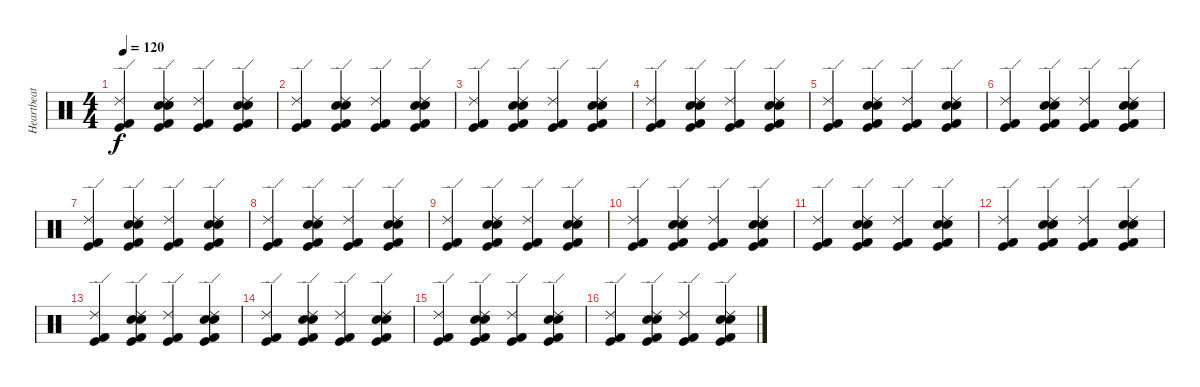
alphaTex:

\track ("Heartbeat" "Heartbeat") {instrument percussion}
\staff {score}
\articulation defaults
\ts (4 4)
\tempo 120
\clef neutral
\ks c
("Kick (hit)" "Kick (hit) 2" "Ride (edge) 2").4{dy f} ("Kick (hit)" "Kick (hit) 2" "Electric Snare (hit)" "Snare (hit) 2" "Ride (edge) 2").4 ("Kick (hit)" "Kick (hit) 2" "Ride (edge) 2").4 ("Kick (hit)" "Kick (hit) 2" "Electric Snare (hit)" "Snare (hit) 2" "Ride (edge) 2").4 |
("Kick (hit)" "Kick (hit) 2" "Ride (edge) 2").4 ("Kick (hit)" "Kick (hit) 2" "Electric Snare (hit)" "Snare (hit) 2" "Ride (edge) 2").4 ("Kick (hit)" "Kick (hit) 2" "Ride (edge) 2").4 ("Kick (hit)" "Kick (hit) 2" "Electric Snare (hit)" "Snare (hit) 2" "Ride (edge) 2").4 |
("Kick (hit)" "Kick (hit) 2" "Ride (edge) 2").4 ("Kick (hit)" "Kick (hit) 2" "Electric Snare (hit)" "Snare (hit) 2" "Ride (edge) 2").4 ("Kick (hit)" "Kick (hit) 2" "Ride (edge) 2").4 ("Kick (hit)" "Kick (hit) 2" "Electric Snare (hit)" "Snare (hit) 2" "Ride (edge) 2").4 |
("Kick (hit)" "Kick (hit) 2" "Ride (edge) 2").4 ("Kick (hit)" "Kick (hit) 2" "Electric Snare (hit)" "Snare (hit) 2" "Ride (edge) 2").4 ("Kick (hit)" "Kick (hit) 2" "Ride (edge) 2").4 ("Kick (hit)" "Kick (hit) 2" "Electric Snare (hit)" "Snare (hit) 2" "Ride (edge) 2").4 |
("Kick (hit)" "Kick (hit) 2" "Ride (edge) 2").4 ("Kick (hit)" "Kick (hit) 2" "Electric Snare (hit)" "Snare (hit) 2" "Ride (edge) 2").4 ("Kick (hit)" "Kick (hit) 2" "Ride (edge) 2").4 ("Kick (hit)" "Kick (hit) 2" "Electric Snare (hit)" "Snare (hit) 2" "Ride (edge) 2").4 |
("Kick (hit)" "Kick (hit) 2" "Ride (edge) 2").4 ("Kick (hit)" "Kick (hit) 2" "Electric Snare (hit)" "Snare (hit) 2" "Ride (edge) 2").4 ("Kick (hit)" "Kick (hit) 2" "Ride (edge) 2").4 ("Kick (hit)" "Kick (hit) 2" "Electric Snare (hit)" "Snare (hit) 2" "Ride (edge) 2").4 |
("Kick (hit)" "Kick (hit) 2" "Ride (edge) 2").4 ("Kick (hit)" "Kick (hit) 2" "Electric Snare (hit)" "Snare (hit) 2" "Ride (edge) 2").4 ("Kick (hit)" "Kick (hit) 2" "Ride (edge) 2").4 ("Kick (hit)" "Kick (hit) 2" "Electric Snare (hit)" "Snare (hit) 2" "Ride (edge) 2").4 |
("Kick (hit)" "Kick (hit) 2" "Ride (edge) 2").4 ("Kick (hit)" "Kick (hit) 2" "Electric Snare (hit)" "Snare (hit) 2" "Ride (edge) 2").4 ("Kick (hit)" "Kick (hit) 2" "Ride (edge) 2").4 ("Kick (hit)" "Kick (hit) 2" "Electric Snare (hit)" "Snare (hit) 2" "Ride (edge) 2").4 |
("Kick (hit)" "Kick (hit) 2" "Ride (edge) 2").4 ("Kick (hit)" "Kick (hit) 2" "Electric Snare (hit)" "Snare (hit) 2" "Ride (edge) 2").4 ("Kick (hit)" "Kick (hit) 2" "Ride (edge) 2").4 ("Kick (hit)" "Kick (hit) 2" "Electric Snare (hit)" "Snare (hit) 2" "Ride (edge) 2").4 |
("Kick (hit)" "Kick (hit) 2" "Ride (edge) 2").4 ("Kick (hit)" "Kick (hit) 2" "Electric Snare (hit)" "Snare (hit) 2" "Ride (edge) 2").4 ("Kick (hit)" "Kick (hit) 2" "Ride (edge) 2").4 ("Kick (hit)" "Kick (hit) 2" "Electric Snare (hit)" "Snare (hit) 2" "Ride (edge) 2").4 |
("Kick (hit)" "Kick (hit) 2" "Ride (edge) 2").4 ("Kick (hit)" "Kick (hit) 2" "Electric Snare (hit)" "Snare (hit) 2" "Ride (edge) 2").4 ("Kick (hit)" "Kick (hit) 2" "Ride (edge) 2").4 ("Kick (hit)" "Kick (hit) 2" "Electric Snare (hit)" "Snare (hit) 2" "Ride (edge) 2").4 |
("Kick (hit)" "Kick (hit) 2" "Ride (edge) 2").4 ("Kick (hit)" "Kick (hit) 2" "Electric Snare (hit)" "Snare (hit) 2" "Ride (edge) 2").4 ("Kick (hit)" "Kick (hit) 2" "Ride (edge) 2").4 ("Kick (hit)" "Kick (hit) 2" "Electric Snare (hit)" "Snare (hit) 2" "Ride (edge) 2").4 |
("Kick (hit)" "Kick (hit) 2" "Ride (edge) 2").4 ("Kick (hit)" "Kick (hit) 2" "Electric Snare (hit)" "Snare (hit) 2" "Ride (edge) 2").4 ("Kick (hit)" "Kick (hit) 2" "Ride (edge) 2").4 ("Kick (hit)" "Kick (hit) 2" "Electric Snare (hit)" "Snare (hit) 2" "Ride (edge) 2").4 |
("Kick (hit)" "Kick (hit) 2" "Ride (edge) 2").4 ("Kick (hit)" "Kick (hit) 2" "Electric Snare (hit)" "Snare (hit) 2" "Ride (edge) 2").4 ("Kick (hit)" "Kick (hit) 2" "Ride (edge) 2").4 ("Kick (hit)" "Kick (hit) 2" "Electric Snare (hit)" "Snare (hit) 2" "Ride (edge) 2").4 |
("Kick (hit)" "Kick (hit) 2" "Ride (edge) 2").4 ("Kick (hit)" "Kick (hit) 2" "Electric Snare (hit)" "Snare (hit) 2" "Ride (edge) 2").4 ("Kick (hit)" "Kick (hit) 2" "Ride (edge) 2").4 ("Kick (hit)" "Kick (hit) 2" "Electric Snare (hit)" "Snare (hit) 2" "Ride (edge) 2").4 |
("Kick (hit)" "Kick (hit) 2" "Ride (edge) 2").4 ("Kick (hit)" "Kick (hit) 2" "Electric Snare (hit)" "Snare (hit) 2" "Ride (edge) 2").4 ("Kick (hit)" "Kick (hit) 2" "Ride (edge) 2").4 ("Kick (hit)" "Kick (hit) 2" "Electric Snare (hit)" "Snare (hit) 2" "Ride (edge) 2").4
